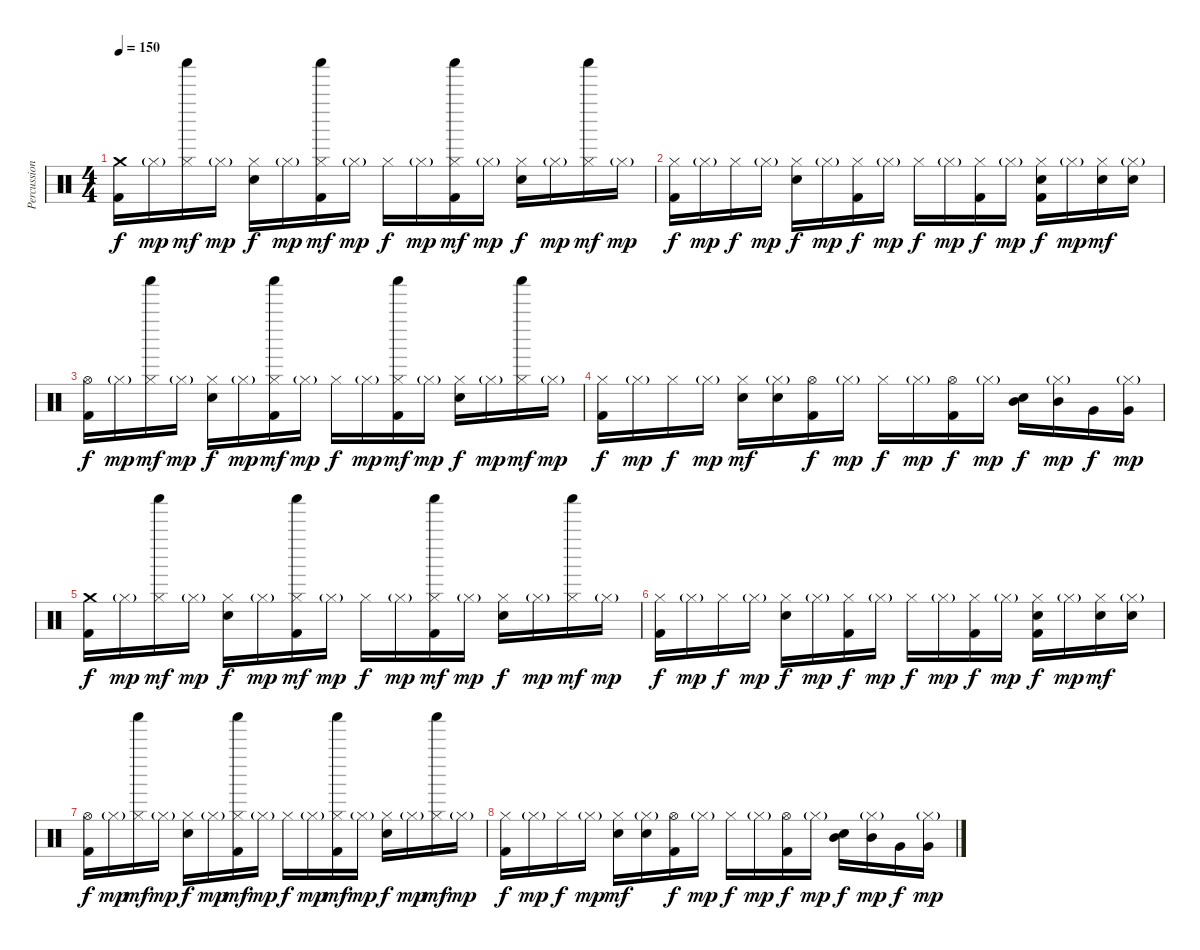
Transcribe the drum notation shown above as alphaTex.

\track ("Percussion" "Percussion") {instrument percussion}
\staff {score}
\articulation defaults
\ts (4 4)
\tempo 150
\clef neutral
\ks c
("Crash medium (hit)" "Kick (hit) 2").16{dy f} "Hi-Hat (closed)"{g}.16{dy mp} ("Hi-Hat (closed)" "Shaker (hit)").16{dy mf} "Hi-Hat (closed)"{g}.16{dy mp} ("Hi-Hat (closed)" "Electric Snare (hit)").16{dy f} "Hi-Hat (closed)"{g}.16{dy mp} ("Hi-Hat (closed)" "Shaker (hit)" "Kick (hit) 2").16{dy mf} "Hi-Hat (closed)"{g}.16{dy mp} "Hi-Hat (closed)".16{dy f} "Hi-Hat (closed)"{g}.16{dy mp} ("Hi-Hat (closed)" "Shaker (hit)" "Kick (hit) 2").16{dy mf} "Hi-Hat (closed)"{g}.16{dy mp} ("Hi-Hat (closed)" "Electric Snare (hit)").16{dy f} "Hi-Hat (closed)"{g}.16{dy mp} ("Hi-Hat (closed)" "Shaker (hit)").16{dy mf} "Hi-Hat (closed)"{g}.16{dy mp} |
("Hi-Hat (closed)" "Kick (hit) 2").16{dy f} "Hi-Hat (closed)"{g}.16{dy mp} "Hi-Hat (closed)".16{dy f} "Hi-Hat (closed)"{g}.16{dy mp} ("Hi-Hat (closed)" "Electric Snare (hit)").16{dy f} "Hi-Hat (closed)"{g}.16{dy mp} ("Hi-Hat (closed)" "Kick (hit) 2").16{dy f} "Hi-Hat (closed)"{g}.16{dy mp} "Hi-Hat (closed)".16{dy f} "Hi-Hat (closed)"{g}.16{dy mp} ("Hi-Hat (closed)" "Kick (hit) 2").16{dy f} "Hi-Hat (closed)"{g}.16{dy mp} ("Hi-Hat (closed)" "Electric Snare (hit)" "Kick (hit) 2").16{dy f} "Hi-Hat (closed)"{g}.16{dy mp} ("Hi-Hat (closed)" "Electric Snare (hit)").16{dy mf} ("Hi-Hat (closed)"{g} "Electric Snare (hit)").16 |
("Hi-Hat (open)" "Kick (hit) 2").16{dy f} "Hi-Hat (closed)"{g}.16{dy mp} ("Hi-Hat (closed)" "Shaker (hit)").16{dy mf} "Hi-Hat (closed)"{g}.16{dy mp} ("Hi-Hat (closed)" "Electric Snare (hit)").16{dy f} "Hi-Hat (closed)"{g}.16{dy mp} ("Hi-Hat (closed)" "Shaker (hit)" "Kick (hit) 2").16{dy mf} "Hi-Hat (closed)"{g}.16{dy mp} "Hi-Hat (closed)".16{dy f} "Hi-Hat (closed)"{g}.16{dy mp} ("Hi-Hat (closed)" "Shaker (hit)" "Kick (hit) 2").16{dy mf} "Hi-Hat (closed)"{g}.16{dy mp} ("Hi-Hat (closed)" "Electric Snare (hit)").16{dy f} "Hi-Hat (closed)"{g}.16{dy mp} ("Hi-Hat (closed)" "Shaker (hit)").16{dy mf} "Hi-Hat (closed)"{g}.16{dy mp} |
("Hi-Hat (closed)" "Kick (hit) 2").16{dy f} "Hi-Hat (closed)"{g}.16{dy mp} "Hi-Hat (closed)".16{dy f} "Hi-Hat (closed)"{g}.16{dy mp} ("Hi-Hat (closed)" "Electric Snare (hit)").16{dy mf} ("Hi-Hat (closed)"{g} "Electric Snare (hit)").16 ("Hi-Hat (open)" "Kick (hit) 2").16{dy f} "Hi-Hat (closed)"{g}.16{dy mp} "Hi-Hat (closed)".16{dy f} "Hi-Hat (closed)"{g}.16{dy mp} ("Hi-Hat (open)" "Kick (hit) 2").16{dy f} "Hi-Hat (closed)"{g}.16{dy mp} ("Mid Tom (hit)" "Electric Snare (hit)").16{dy f} ("Hi-Hat (closed)"{g} "Mid Tom (hit)").16{dy mp} "Very Low Tom (hit)".16{dy f} ("Hi-Hat (closed)"{g} "Very Low Tom (hit)").16{dy mp} |
("Crash medium (hit)" "Kick (hit) 2").16{dy f} "Hi-Hat (closed)"{g}.16{dy mp} ("Hi-Hat (closed)" "Shaker (hit)").16{dy mf} "Hi-Hat (closed)"{g}.16{dy mp} ("Hi-Hat (closed)" "Electric Snare (hit)").16{dy f} "Hi-Hat (closed)"{g}.16{dy mp} ("Hi-Hat (closed)" "Shaker (hit)" "Kick (hit) 2").16{dy mf} "Hi-Hat (closed)"{g}.16{dy mp} "Hi-Hat (closed)".16{dy f} "Hi-Hat (closed)"{g}.16{dy mp} ("Hi-Hat (closed)" "Shaker (hit)" "Kick (hit) 2").16{dy mf} "Hi-Hat (closed)"{g}.16{dy mp} ("Hi-Hat (closed)" "Electric Snare (hit)").16{dy f} "Hi-Hat (closed)"{g}.16{dy mp} ("Hi-Hat (closed)" "Shaker (hit)").16{dy mf} "Hi-Hat (closed)"{g}.16{dy mp} |
("Hi-Hat (closed)" "Kick (hit) 2").16{dy f} "Hi-Hat (closed)"{g}.16{dy mp} "Hi-Hat (closed)".16{dy f} "Hi-Hat (closed)"{g}.16{dy mp} ("Hi-Hat (closed)" "Electric Snare (hit)").16{dy f} "Hi-Hat (closed)"{g}.16{dy mp} ("Hi-Hat (closed)" "Kick (hit) 2").16{dy f} "Hi-Hat (closed)"{g}.16{dy mp} "Hi-Hat (closed)".16{dy f} "Hi-Hat (closed)"{g}.16{dy mp} ("Hi-Hat (closed)" "Kick (hit) 2").16{dy f} "Hi-Hat (closed)"{g}.16{dy mp} ("Hi-Hat (closed)" "Electric Snare (hit)" "Kick (hit) 2").16{dy f} "Hi-Hat (closed)"{g}.16{dy mp} ("Hi-Hat (closed)" "Electric Snare (hit)").16{dy mf} ("Hi-Hat (closed)"{g} "Electric Snare (hit)").16 |
("Hi-Hat (open)" "Kick (hit) 2").16{dy f} "Hi-Hat (closed)"{g}.16{dy mp} ("Hi-Hat (closed)" "Shaker (hit)").16{dy mf} "Hi-Hat (closed)"{g}.16{dy mp} ("Hi-Hat (closed)" "Electric Snare (hit)").16{dy f} "Hi-Hat (closed)"{g}.16{dy mp} ("Hi-Hat (closed)" "Shaker (hit)" "Kick (hit) 2").16{dy mf} "Hi-Hat (closed)"{g}.16{dy mp} "Hi-Hat (closed)".16{dy f} "Hi-Hat (closed)"{g}.16{dy mp} ("Hi-Hat (closed)" "Shaker (hit)" "Kick (hit) 2").16{dy mf} "Hi-Hat (closed)"{g}.16{dy mp} ("Hi-Hat (closed)" "Electric Snare (hit)").16{dy f} "Hi-Hat (closed)"{g}.16{dy mp} ("Hi-Hat (closed)" "Shaker (hit)").16{dy mf} "Hi-Hat (closed)"{g}.16{dy mp} |
("Hi-Hat (closed)" "Kick (hit) 2").16{dy f} "Hi-Hat (closed)"{g}.16{dy mp} "Hi-Hat (closed)".16{dy f} "Hi-Hat (closed)"{g}.16{dy mp} ("Hi-Hat (closed)" "Electric Snare (hit)").16{dy mf} ("Hi-Hat (closed)"{g} "Electric Snare (hit)").16 ("Hi-Hat (open)" "Kick (hit) 2").16{dy f} "Hi-Hat (closed)"{g}.16{dy mp} "Hi-Hat (closed)".16{dy f} "Hi-Hat (closed)"{g}.16{dy mp} ("Hi-Hat (open)" "Kick (hit) 2").16{dy f} "Hi-Hat (closed)"{g}.16{dy mp} ("Mid Tom (hit)" "Electric Snare (hit)").16{dy f} ("Hi-Hat (closed)"{g} "Mid Tom (hit)").16{dy mp} "Very Low Tom (hit)".16{dy f} ("Hi-Hat (closed)"{g} "Very Low Tom (hit)").16{dy mp}
